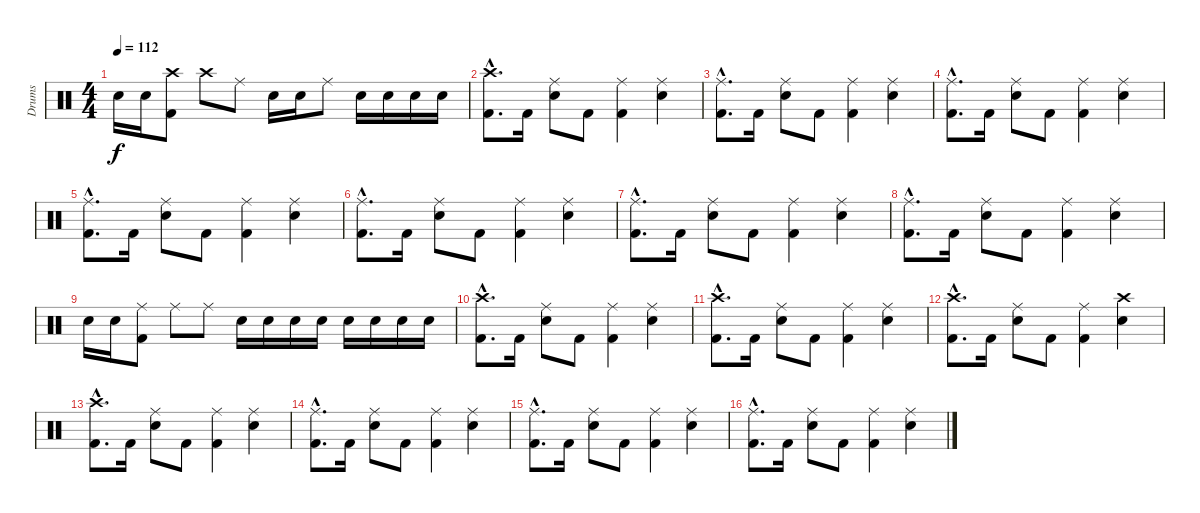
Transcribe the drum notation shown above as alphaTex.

\track ("Drums" "Drums") {instrument percussion}
\staff {score}
\articulation defaults
\ts (4 4)
\tempo 112
\clef neutral
\ks c "Electric Snare (hit)".16{dy f} "Electric Snare (hit)".16
("Crash high (hit)" "Kick (hit) 2").8 "Crash high (hit)".8 "Ride (middle)".8 "Electric Snare (hit)".16 "Electric Snare (hit)".16 "Ride (middle)".8 "Electric Snare (hit)".16 "Electric Snare (hit)".16 "Electric Snare (hit)".16 "Electric Snare (hit)".16 |
("Crash high (hit)"{hac} "Kick (hit) 2"{hac}).8{d} "Kick (hit) 2".16 ("Ride (middle)" "Electric Snare (hit)").8 "Kick (hit) 2".8 ("Ride (middle)" "Kick (hit) 2").4 ("Ride (middle)" "Electric Snare (hit)").4 |
("Ride (middle)"{hac} "Kick (hit) 2"{hac}).8{d} "Kick (hit) 2".16 ("Ride (middle)" "Electric Snare (hit)").8 "Kick (hit) 2".8 ("Ride (middle)" "Kick (hit) 2").4 ("Ride (middle)" "Electric Snare (hit)").4 |
("Ride (middle)"{hac} "Kick (hit) 2"{hac}).8{d} "Kick (hit) 2".16 ("Ride (middle)" "Electric Snare (hit)").8 "Kick (hit) 2".8 ("Ride (middle)" "Kick (hit) 2").4 ("Ride (middle)" "Electric Snare (hit)").4 |
("Ride (middle)"{hac} "Kick (hit) 2"{hac}).8{d} "Kick (hit) 2".16 ("Ride (middle)" "Electric Snare (hit)").8 "Kick (hit) 2".8 ("Ride (middle)" "Kick (hit) 2").4 ("Ride (middle)" "Electric Snare (hit)").4 |
("Ride (middle)"{hac} "Kick (hit) 2"{hac}).8{d} "Kick (hit) 2".16 ("Ride (middle)" "Electric Snare (hit)").8 "Kick (hit) 2".8 ("Ride (middle)" "Kick (hit) 2").4 ("Ride (middle)" "Electric Snare (hit)").4 |
("Ride (middle)"{hac} "Kick (hit) 2"{hac}).8{d} "Kick (hit) 2".16 ("Ride (middle)" "Electric Snare (hit)").8 "Kick (hit) 2".8 ("Ride (middle)" "Kick (hit) 2").4 ("Ride (middle)" "Electric Snare (hit)").4 |
("Ride (middle)"{hac} "Kick (hit) 2"{hac}).8{d} "Kick (hit) 2".16 ("Ride (middle)" "Electric Snare (hit)").8 "Kick (hit) 2".8 ("Ride (middle)" "Kick (hit) 2").4 ("Ride (middle)" "Electric Snare (hit)").4 |
"Electric Snare (hit)".16 "Electric Snare (hit)".16 ("Ride (middle)" "Kick (hit) 2").8 "Ride (middle)".8 "Ride (middle)".8 "Electric Snare (hit)".16 "Electric Snare (hit)".16 "Electric Snare (hit)".16 "Electric Snare (hit)".16 "Electric Snare (hit)".16 "Electric Snare (hit)".16 "Electric Snare (hit)".16 "Electric Snare (hit)".16 |
("Crash high (hit)"{hac} "Kick (hit) 2"{hac}).8{d} "Kick (hit) 2".16 ("Ride (middle)" "Electric Snare (hit)").8 "Kick (hit) 2".8 ("Ride (middle)" "Kick (hit) 2").4 ("Ride (middle)" "Electric Snare (hit)").4 |
("Crash high (hit)"{hac} "Kick (hit) 2"{hac}).8{d} "Kick (hit) 2".16 ("Ride (middle)" "Electric Snare (hit)").8 "Kick (hit) 2".8 ("Ride (middle)" "Kick (hit) 2").4 ("Ride (middle)" "Electric Snare (hit)").4 |
("Crash high (hit)"{hac} "Kick (hit) 2"{hac}).8{d} "Kick (hit) 2".16 ("Ride (middle)" "Electric Snare (hit)").8 "Kick (hit) 2".8 ("Ride (middle)" "Kick (hit) 2").4 ("Crash high (hit)" "Electric Snare (hit)").4 |
("Crash high (hit)"{hac} "Kick (hit) 2"{hac}).8{d} "Kick (hit) 2".16 ("Ride (middle)" "Electric Snare (hit)").8 "Kick (hit) 2".8 ("Ride (middle)" "Kick (hit) 2").4 ("Ride (middle)" "Electric Snare (hit)").4 |
("Ride (middle)"{hac} "Kick (hit) 2"{hac}).8{d} "Kick (hit) 2".16 ("Ride (middle)" "Electric Snare (hit)").8 "Kick (hit) 2".8 ("Ride (middle)" "Kick (hit) 2").4 ("Ride (middle)" "Electric Snare (hit)").4 |
("Ride (middle)"{hac} "Kick (hit) 2"{hac}).8{d} "Kick (hit) 2".16 ("Ride (middle)" "Electric Snare (hit)").8 "Kick (hit) 2".8 ("Ride (middle)" "Kick (hit) 2").4 ("Ride (middle)" "Electric Snare (hit)").4 |
("Ride (middle)"{hac} "Kick (hit) 2"{hac}).8{d} "Kick (hit) 2".16 ("Ride (middle)" "Electric Snare (hit)").8 "Kick (hit) 2".8 ("Ride (middle)" "Kick (hit) 2").4 ("Ride (middle)" "Electric Snare (hit)").4
